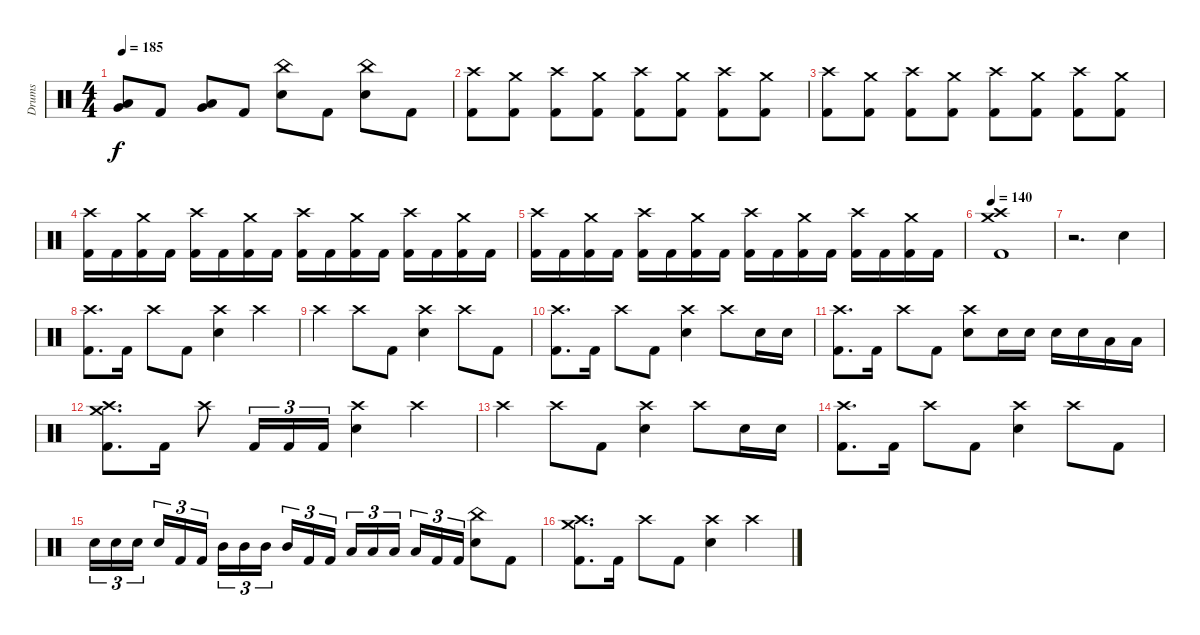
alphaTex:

\track ("Drums" "Drums") {instrument percussion}
\staff {score}
\articulation defaults
\ts (4 4)
\tempo 185
\clef neutral
\ks c
("Very Low Tom (hit)" "Low Tom (hit)").8{dy f} "Kick (hit) 2".8 ("Very Low Tom (hit)" "Low Tom (hit)").8 "Kick (hit) 2".8 ("China (hit)" "Electric Snare (hit)").8 "Kick (hit) 2".8 ("China (hit)" "Electric Snare (hit)").8 "Kick (hit) 2".8 |
("Crash high (hit)" "Kick (hit) 2").8 ("Crash medium (hit)" "Kick (hit) 2").8 ("Crash high (hit)" "Kick (hit) 2").8 ("Crash medium (hit)" "Kick (hit) 2").8 ("Crash high (hit)" "Kick (hit) 2").8 ("Crash medium (hit)" "Kick (hit) 2").8 ("Crash high (hit)" "Kick (hit) 2").8 ("Crash medium (hit)" "Kick (hit) 2").8 |
("Crash high (hit)" "Kick (hit) 2").8 ("Crash medium (hit)" "Kick (hit) 2").8 ("Crash high (hit)" "Kick (hit) 2").8 ("Crash medium (hit)" "Kick (hit) 2").8 ("Crash high (hit)" "Kick (hit) 2").8 ("Crash medium (hit)" "Kick (hit) 2").8 ("Crash high (hit)" "Kick (hit) 2").8 ("Crash medium (hit)" "Kick (hit) 2").8 |
("Crash high (hit)" "Kick (hit) 2").16 "Kick (hit) 2".16 ("Crash medium (hit)" "Kick (hit) 2").16 "Kick (hit) 2".16 ("Crash high (hit)" "Kick (hit) 2").16 "Kick (hit) 2".16 ("Crash medium (hit)" "Kick (hit) 2").16 "Kick (hit) 2".16 ("Crash high (hit)" "Kick (hit) 2").16 "Kick (hit) 2".16 ("Crash medium (hit)" "Kick (hit) 2").16 "Kick (hit) 2".16 ("Crash high (hit)" "Kick (hit) 2").16 "Kick (hit) 2".16 ("Crash medium (hit)" "Kick (hit) 2").16 "Kick (hit) 2".16 |
("Crash high (hit)" "Kick (hit) 2").16 "Kick (hit) 2".16 ("Crash medium (hit)" "Kick (hit) 2").16 "Kick (hit) 2".16 ("Crash high (hit)" "Kick (hit) 2").16 "Kick (hit) 2".16 ("Crash medium (hit)" "Kick (hit) 2").16 "Kick (hit) 2".16 ("Crash high (hit)" "Kick (hit) 2").16 "Kick (hit) 2".16 ("Crash medium (hit)" "Kick (hit) 2").16 "Kick (hit) 2".16 ("Crash high (hit)" "Kick (hit) 2").16 "Kick (hit) 2".16 ("Crash medium (hit)" "Kick (hit) 2").16 "Kick (hit) 2".16 |
\tempo 140
("Crash high (hit)" "Crash medium (hit)" "Kick (hit) 2").1 |
r.2{d} "Electric Snare (hit)".4 |
("Crash high (hit)" "Kick (hit) 2").8{d} "Kick (hit) 2".16 "Crash high (hit)".8 "Kick (hit) 2".8 ("Crash high (hit)" "Electric Snare (hit)").4 "Crash high (hit)".4 |
"Crash high (hit)".4 "Crash high (hit)".8 "Kick (hit) 2".8 ("Crash high (hit)" "Electric Snare (hit)").4 "Crash high (hit)".8 "Kick (hit) 2".8 |
("Crash high (hit)" "Kick (hit) 2").8{d} "Kick (hit) 2".16 "Crash high (hit)".8 "Kick (hit) 2".8 ("Crash high (hit)" "Electric Snare (hit)").4 "Crash high (hit)".8 "Electric Snare (hit)".16 "Electric Snare (hit)".16 |
("Crash high (hit)" "Kick (hit) 2").8{d} "Kick (hit) 2".16 "Crash high (hit)".8 "Kick (hit) 2".8 ("Crash high (hit)" "Electric Snare (hit)").8 "Electric Snare (hit)".16 "Electric Snare (hit)".16 "Electric Snare (hit)".16 "Electric Snare (hit)".16 "Low Tom (hit)".16 "Low Tom (hit)".16 |
("Crash high (hit)" "Crash medium (hit)" "Kick (hit) 2").8{d} "Kick (hit) 2".16 "Crash high (hit)".8 "Kick (hit) 2".16{tu (3 2)} "Kick (hit) 2".16{tu (3 2)} "Kick (hit) 2".16{tu (3 2)} ("Crash high (hit)" "Electric Snare (hit)").4 "Crash high (hit)".4 |
"Crash high (hit)".4 "Crash high (hit)".8 "Kick (hit) 2".8 ("Crash high (hit)" "Electric Snare (hit)").4 "Crash high (hit)".8 "Electric Snare (hit)".16 "Electric Snare (hit)".16 |
("Crash high (hit)" "Kick (hit) 2").8{d} "Kick (hit) 2".16 "Crash high (hit)".8 "Kick (hit) 2".8 ("Crash high (hit)" "Electric Snare (hit)").4 "Crash high (hit)".8 "Kick (hit) 2".8 |
"Electric Snare (hit)".16{tu (3 2)} "Electric Snare (hit)".16{tu (3 2)} "Electric Snare (hit)".16{tu (3 2) beam splitsecondary} "Electric Snare (hit)".16{tu (3 2)} "Kick (hit) 2".16{tu (3 2)} "Kick (hit) 2".16{tu (3 2)} "Mid Tom (hit)".16{tu (3 2)} "Mid Tom (hit)".16{tu (3 2)} "Mid Tom (hit)".16{tu (3 2) beam splitsecondary} "Mid Tom (hit)".16{tu (3 2)} "Kick (hit) 2".16{tu (3 2)} "Kick (hit) 2".16{tu (3 2)} "Low Tom (hit)".16{tu (3 2)} "Low Tom (hit)".16{tu (3 2)} "Low Tom (hit)".16{tu (3 2) beam splitsecondary} "Low Tom (hit)".16{tu (3 2)} "Kick (hit) 2".16{tu (3 2)} "Kick (hit) 2".16{tu (3 2)} ("China (hit)" "Electric Snare (hit)").8 "Kick (hit) 2".8 |
("Crash high (hit)" "Crash medium (hit)" "Kick (hit) 2").8{d} "Kick (hit) 2".16 "Crash high (hit)".8 "Kick (hit) 2".8 ("Crash high (hit)" "Electric Snare (hit)").4 "Crash high (hit)".4
